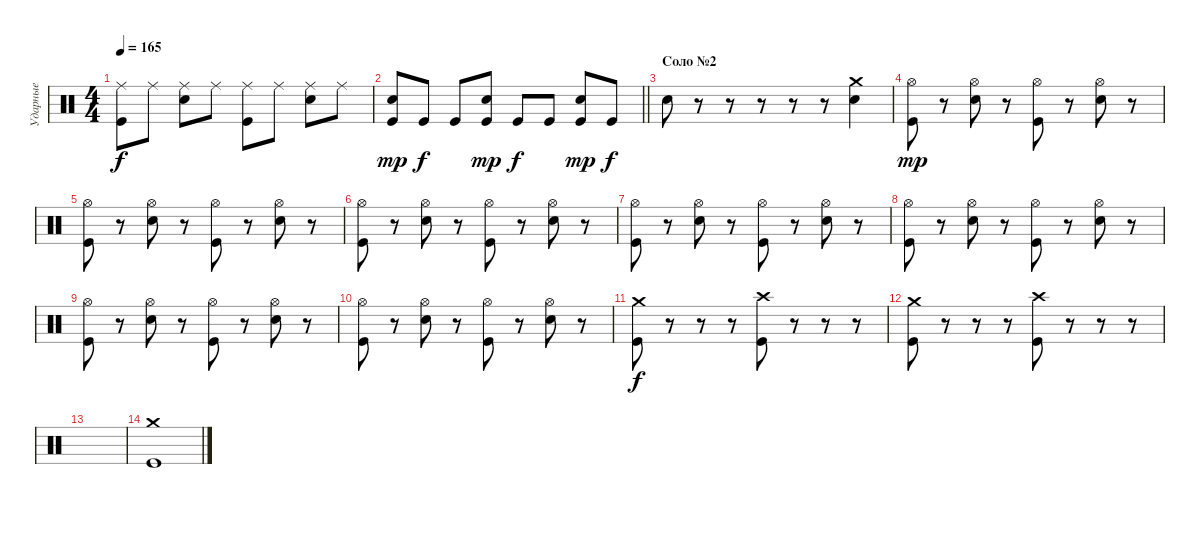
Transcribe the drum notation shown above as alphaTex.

\track ("Ударные" "Ударные") {instrument percussion}
\staff {score}
\articulation defaults
\ts (4 4)
\tempo 165
\clef neutral
\ks c
("Ride (middle)" "Kick (hit)").8{dy f} "Ride (middle)".8 ("Ride (middle)" "Electric Snare (hit)").8 "Ride (middle)".8 ("Ride (middle)" "Kick (hit)").8 "Ride (middle)".8 ("Ride (middle)" "Electric Snare (hit)").8 "Ride (middle)".8 |
\barLineRight lightlight
("Electric Snare (hit)" "Kick (hit)").8{dy mp} "Kick (hit)".8{dy f} "Kick (hit)".8 ("Electric Snare (hit)" "Kick (hit)").8{dy mp} "Kick (hit)".8{dy f} "Kick (hit)".8 ("Electric Snare (hit)" "Kick (hit)").8{dy mp} "Kick (hit)".8{dy f} |
\section ("" "Соло №2")
"Electric Snare (hit)".8 r.8 r.8 r.8 r.8 r.8 ("Crash medium (hit)" "Electric Snare (hit)").4 |
("Hi-Hat (open)" "Kick (hit)").8{dy mp} r.8 ("Hi-Hat (open)" "Electric Snare (hit)").8 r.8 ("Hi-Hat (open)" "Kick (hit)").8 r.8 ("Hi-Hat (open)" "Electric Snare (hit)").8 r.8 |
("Hi-Hat (open)" "Kick (hit)").8 r.8 ("Hi-Hat (open)" "Electric Snare (hit)").8 r.8 ("Hi-Hat (open)" "Kick (hit)").8 r.8 ("Hi-Hat (open)" "Electric Snare (hit)").8 r.8 |
("Hi-Hat (open)" "Kick (hit)").8 r.8 ("Hi-Hat (open)" "Electric Snare (hit)").8 r.8 ("Hi-Hat (open)" "Kick (hit)").8 r.8 ("Hi-Hat (open)" "Electric Snare (hit)").8 r.8 |
("Hi-Hat (open)" "Kick (hit)").8 r.8 ("Hi-Hat (open)" "Electric Snare (hit)").8 r.8 ("Hi-Hat (open)" "Kick (hit)").8 r.8 ("Hi-Hat (open)" "Electric Snare (hit)").8 r.8 |
("Hi-Hat (open)" "Kick (hit)").8 r.8 ("Hi-Hat (open)" "Electric Snare (hit)").8 r.8 ("Hi-Hat (open)" "Kick (hit)").8 r.8 ("Hi-Hat (open)" "Electric Snare (hit)").8 r.8 |
("Hi-Hat (open)" "Kick (hit)").8 r.8 ("Hi-Hat (open)" "Electric Snare (hit)").8 r.8 ("Hi-Hat (open)" "Kick (hit)").8 r.8 ("Hi-Hat (open)" "Electric Snare (hit)").8 r.8 |
("Hi-Hat (open)" "Kick (hit)").8 r.8 ("Hi-Hat (open)" "Electric Snare (hit)").8 r.8 ("Hi-Hat (open)" "Kick (hit)").8 r.8 ("Hi-Hat (open)" "Electric Snare (hit)").8 r.8 |
("Crash medium (hit)" "Kick (hit)").8{dy f} r.8 r.8 r.8 ("Crash high (hit)" "Kick (hit)").8 r.8 r.8 r.8 |
("Crash medium (hit)" "Kick (hit)").8 r.8 r.8 r.8 ("Crash high (hit)" "Kick (hit)").8 r.8 r.8 r.8 |
|
("Crash medium (hit)" "Kick (hit)").1
